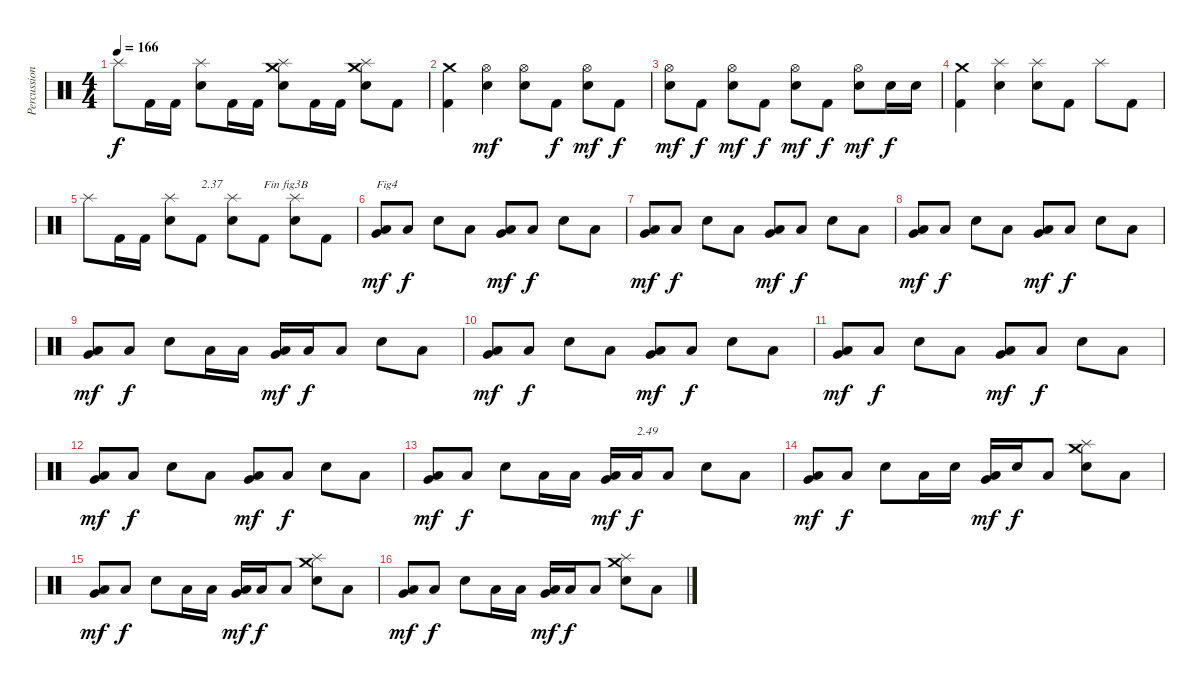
\track ("Percussions" "Percussion") {instrument percussion}
\staff {score}
\articulation defaults
\ts (4 4)
\tempo 166
\clef neutral
\ks c "Splash (hit)".8{dy f} "Kick (hit) 2".16 "Kick (hit) 2".16
("Electric Snare (hit)" "Splash (hit)").8 "Kick (hit) 2".16 "Kick (hit) 2".16 ("Electric Snare (hit)" "Splash (hit)" "Crash medium (hit)").8 "Kick (hit) 2".16 "Kick (hit) 2".16 ("Electric Snare (hit)" "Splash (hit)" "Crash medium (hit)").8 "Kick (hit) 2".8 |
("Kick (hit) 2" "Crash medium (hit)").4 ("Electric Snare (hit)" "Hi-Hat (open)").4{dy mf} ("Electric Snare (hit)" "Hi-Hat (open)").8 "Kick (hit) 2".8{dy f} ("Electric Snare (hit)" "Hi-Hat (open)").8{dy mf} "Kick (hit) 2".8{dy f} |
("Electric Snare (hit)" "Hi-Hat (open)").8{dy mf} "Kick (hit) 2".8{dy f} ("Electric Snare (hit)" "Hi-Hat (open)").8{dy mf} "Kick (hit) 2".8{dy f} ("Electric Snare (hit)" "Hi-Hat (open)").8{dy mf} "Kick (hit) 2".8{dy f} ("Electric Snare (hit)" "Hi-Hat (open)").8{dy mf} "Electric Snare (hit)".16{dy f} "Electric Snare (hit)".16 |
("Kick (hit) 2" "Crash medium (hit)").4 ("Electric Snare (hit)" "Splash (hit)").4 ("Electric Snare (hit)" "Splash (hit)").8 "Kick (hit) 2".8 "Splash (hit)".8 "Kick (hit) 2".8 |
"Splash (hit)".8 "Kick (hit) 2".16 "Kick (hit) 2".16 ("Electric Snare (hit)" "Splash (hit)").8 "Kick (hit) 2".8{txt "2.37"} ("Electric Snare (hit)" "Splash (hit)").8 "Kick (hit) 2".8{txt "Fin fig3B"} ("Electric Snare (hit)" "Splash (hit)").8 "Kick (hit) 2".8 |
("Low Floor Tom (hit)" "Very Low Tom (hit)").8{txt "Fig4" dy mf} "Low Floor Tom (hit)".8{dy f} "Electric Snare (hit)".8 "Low Floor Tom (hit)".8 ("Low Floor Tom (hit)" "Very Low Tom (hit)").8{dy mf} "Low Floor Tom (hit)".8{dy f} "Electric Snare (hit)".8 "Low Floor Tom (hit)".8 |
("Low Floor Tom (hit)" "Very Low Tom (hit)").8{dy mf} "Low Floor Tom (hit)".8{dy f} "Electric Snare (hit)".8 "Low Floor Tom (hit)".8 ("Low Floor Tom (hit)" "Very Low Tom (hit)").8{dy mf} "Low Floor Tom (hit)".8{dy f} "Electric Snare (hit)".8 "Low Floor Tom (hit)".8 |
("Low Floor Tom (hit)" "Very Low Tom (hit)").8{dy mf} "Low Floor Tom (hit)".8{dy f} "Electric Snare (hit)".8 "Low Floor Tom (hit)".8 ("Low Floor Tom (hit)" "Very Low Tom (hit)").8{dy mf} "Low Floor Tom (hit)".8{dy f} "Electric Snare (hit)".8 "Low Floor Tom (hit)".8 |
("Low Floor Tom (hit)" "Very Low Tom (hit)").8{dy mf} "Low Floor Tom (hit)".8{dy f} "Electric Snare (hit)".8 "Low Floor Tom (hit)".16 "Low Floor Tom (hit)".16 ("Low Floor Tom (hit)" "Very Low Tom (hit)").16{dy mf} "Low Floor Tom (hit)".16{dy f} "Low Floor Tom (hit)".8 "Electric Snare (hit)".8 "Low Floor Tom (hit)".8 |
("Low Floor Tom (hit)" "Very Low Tom (hit)").8{dy mf} "Low Floor Tom (hit)".8{dy f} "Electric Snare (hit)".8 "Low Floor Tom (hit)".8 ("Low Floor Tom (hit)" "Very Low Tom (hit)").8{dy mf} "Low Floor Tom (hit)".8{dy f} "Electric Snare (hit)".8 "Low Floor Tom (hit)".8 |
("Low Floor Tom (hit)" "Very Low Tom (hit)").8{dy mf} "Low Floor Tom (hit)".8{dy f} "Electric Snare (hit)".8 "Low Floor Tom (hit)".8 ("Low Floor Tom (hit)" "Very Low Tom (hit)").8{dy mf} "Low Floor Tom (hit)".8{dy f} "Electric Snare (hit)".8 "Low Floor Tom (hit)".8 |
("Low Floor Tom (hit)" "Very Low Tom (hit)").8{dy mf} "Low Floor Tom (hit)".8{dy f} "Electric Snare (hit)".8 "Low Floor Tom (hit)".8 ("Low Floor Tom (hit)" "Very Low Tom (hit)").8{dy mf} "Low Floor Tom (hit)".8{dy f} "Electric Snare (hit)".8 "Low Floor Tom (hit)".8 |
("Low Floor Tom (hit)" "Very Low Tom (hit)").8{dy mf} "Low Floor Tom (hit)".8{dy f} "Electric Snare (hit)".8 "Low Floor Tom (hit)".16 "Low Floor Tom (hit)".16 ("Low Floor Tom (hit)" "Very Low Tom (hit)").16{dy mf} "Low Floor Tom (hit)".16{txt "2.49" dy f} "Low Floor Tom (hit)".8 "Electric Snare (hit)".8 "Low Floor Tom (hit)".8 |
("Low Floor Tom (hit)" "Very Low Tom (hit)").8{dy mf} "Low Floor Tom (hit)".8{dy f} "Electric Snare (hit)".8 "Low Floor Tom (hit)".16 "Electric Snare (hit)".16 ("Low Floor Tom (hit)" "Very Low Tom (hit)").16{dy mf} "Electric Snare (hit)".16{dy f} "Low Floor Tom (hit)".8 ("Electric Snare (hit)" "Splash (hit)" "Crash medium (hit)").8 "Low Floor Tom (hit)".8 |
("Low Floor Tom (hit)" "Very Low Tom (hit)").8{dy mf} "Low Floor Tom (hit)".8{dy f} "Electric Snare (hit)".8 "Low Floor Tom (hit)".16 "Low Floor Tom (hit)".16 ("Low Floor Tom (hit)" "Very Low Tom (hit)").16{dy mf} "Low Floor Tom (hit)".16{dy f} "Low Floor Tom (hit)".8 ("Electric Snare (hit)" "Splash (hit)" "Crash medium (hit)").8 "Low Floor Tom (hit)".8 |
("Low Floor Tom (hit)" "Very Low Tom (hit)").8{dy mf} "Low Floor Tom (hit)".8{dy f} "Electric Snare (hit)".8 "Low Floor Tom (hit)".16 "Low Floor Tom (hit)".16 ("Low Floor Tom (hit)" "Very Low Tom (hit)").16{dy mf} "Low Floor Tom (hit)".16{dy f} "Low Floor Tom (hit)".8 ("Electric Snare (hit)" "Splash (hit)" "Crash medium (hit)").8 "Low Floor Tom (hit)".8
